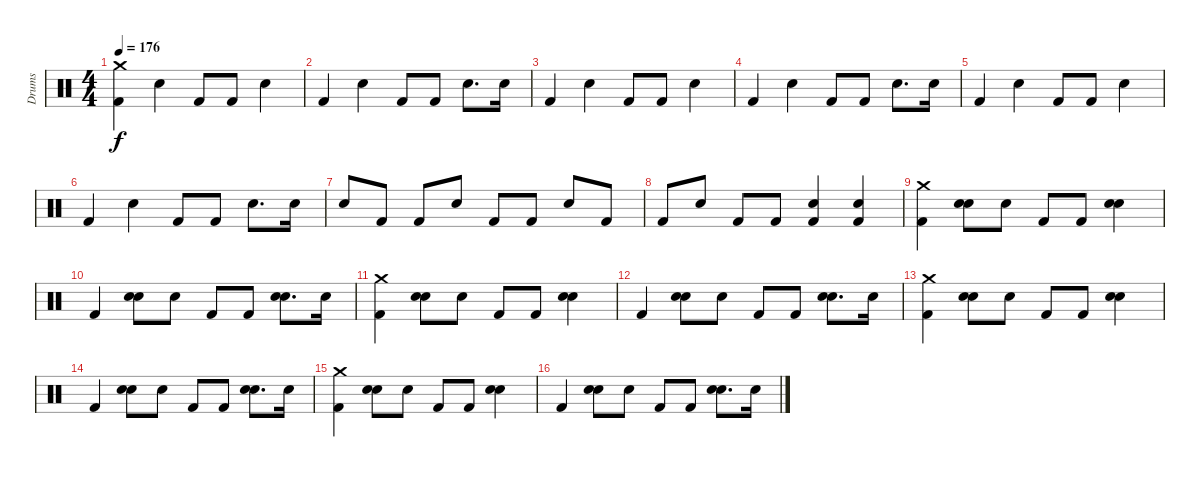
\track ("Drums" "Drums") {instrument percussion}
\staff {score}
\articulation defaults
\ts (4 4)
\tempo 176
\clef neutral
\ks c
("Kick (hit) 2" "Crash medium (hit)").4{dy f volume 15} "Snare (hit) 2".4 "Kick (hit) 2".8 "Kick (hit) 2".8 "Snare (hit) 2".4 |
"Kick (hit) 2".4 "Snare (hit) 2".4 "Kick (hit) 2".8 "Kick (hit) 2".8 "Snare (hit) 2".8{d} "Snare (hit) 2".16 |
"Kick (hit) 2".4 "Snare (hit) 2".4 "Kick (hit) 2".8 "Kick (hit) 2".8 "Snare (hit) 2".4 |
"Kick (hit) 2".4 "Snare (hit) 2".4 "Kick (hit) 2".8 "Kick (hit) 2".8 "Snare (hit) 2".8{d} "Snare (hit) 2".16 |
"Kick (hit) 2".4 "Snare (hit) 2".4 "Kick (hit) 2".8 "Kick (hit) 2".8 "Snare (hit) 2".4 |
"Kick (hit) 2".4 "Snare (hit) 2".4 "Kick (hit) 2".8 "Kick (hit) 2".8 "Snare (hit) 2".8{d} "Snare (hit) 2".16 |
"Snare (hit) 2".8 "Kick (hit) 2".8 "Kick (hit) 2".8 "Snare (hit) 2".8 "Kick (hit) 2".8 "Kick (hit) 2".8 "Snare (hit) 2".8 "Kick (hit) 2".8 |
"Kick (hit) 2".8 "Snare (hit) 2".8 "Kick (hit) 2".8 "Kick (hit) 2".8 ("Kick (hit) 2" "Snare (hit) 2").4 ("Kick (hit) 2" "Snare (hit) 2").4 |
("Kick (hit) 2" "Crash medium (hit)").4{volume 15} ("Snare (hit) 2" "Hand Clap (hit)").8 "Hand Clap (hit)".8 "Kick (hit) 2".8 "Kick (hit) 2".8 ("Snare (hit) 2" "Hand Clap (hit)").4 |
"Kick (hit) 2".4 ("Snare (hit) 2" "Hand Clap (hit)").8 "Hand Clap (hit)".8 "Kick (hit) 2".8 "Kick (hit) 2".8 ("Snare (hit) 2" "Hand Clap (hit)").8{d} "Snare (hit) 2".16 |
("Kick (hit) 2" "Crash medium (hit)").4{volume 15} ("Snare (hit) 2" "Hand Clap (hit)").8 "Hand Clap (hit)".8 "Kick (hit) 2".8 "Kick (hit) 2".8 ("Snare (hit) 2" "Hand Clap (hit)").4 |
"Kick (hit) 2".4 ("Snare (hit) 2" "Hand Clap (hit)").8 "Hand Clap (hit)".8 "Kick (hit) 2".8 "Kick (hit) 2".8 ("Snare (hit) 2" "Hand Clap (hit)").8{d} "Snare (hit) 2".16 |
("Kick (hit) 2" "Crash medium (hit)").4{volume 15} ("Snare (hit) 2" "Hand Clap (hit)").8 "Hand Clap (hit)".8 "Kick (hit) 2".8 "Kick (hit) 2".8 ("Snare (hit) 2" "Hand Clap (hit)").4 |
"Kick (hit) 2".4 ("Snare (hit) 2" "Hand Clap (hit)").8 "Hand Clap (hit)".8 "Kick (hit) 2".8 "Kick (hit) 2".8 ("Snare (hit) 2" "Hand Clap (hit)").8{d} "Snare (hit) 2".16 |
("Kick (hit) 2" "Crash medium (hit)").4{volume 15} ("Snare (hit) 2" "Hand Clap (hit)").8 "Hand Clap (hit)".8 "Kick (hit) 2".8 "Kick (hit) 2".8 ("Snare (hit) 2" "Hand Clap (hit)").4 |
"Kick (hit) 2".4 ("Snare (hit) 2" "Hand Clap (hit)").8 "Hand Clap (hit)".8 "Kick (hit) 2".8 "Kick (hit) 2".8 ("Snare (hit) 2" "Hand Clap (hit)").8{d} "Snare (hit) 2".16
